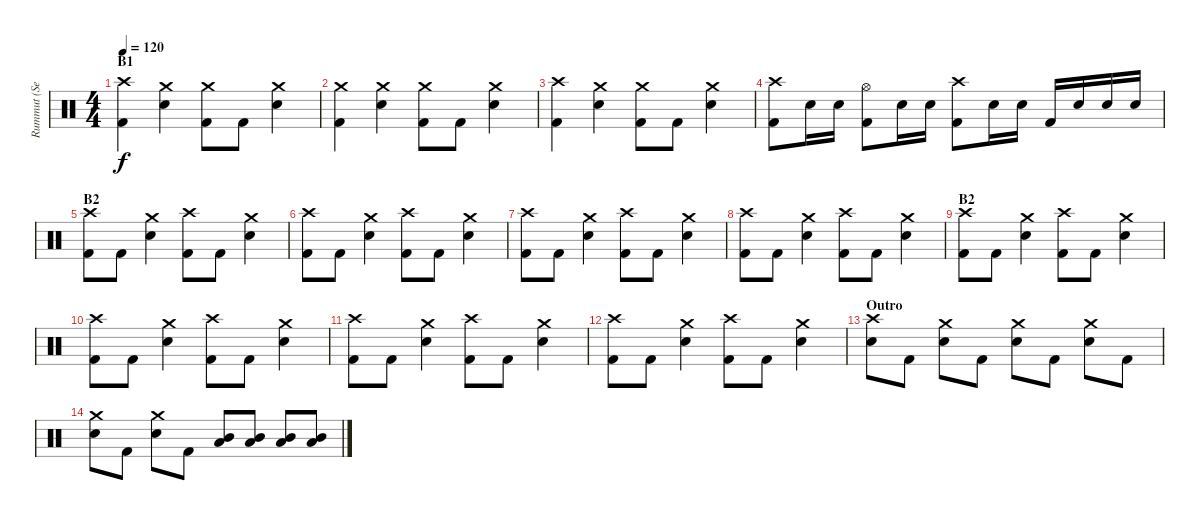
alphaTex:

\track ("Rummut (Seppo Pohjolainen)" "Rummut (Se") {instrument percussion}
\staff {score}
\articulation defaults
\ts (4 4)
\section ("" "B1")
\tempo 120
\clef neutral
\ks c
("Crash high (hit)" "Kick (hit) 2").4{dy f} ("Crash medium (hit)" "Electric Snare (hit)").4 ("Crash medium (hit)" "Kick (hit) 2").8 "Kick (hit) 2".8 ("Crash medium (hit)" "Electric Snare (hit)").4 |
("Crash medium (hit)" "Kick (hit) 2").4 ("Crash medium (hit)" "Electric Snare (hit)").4 ("Crash medium (hit)" "Kick (hit) 2").8 "Kick (hit) 2".8 ("Crash medium (hit)" "Electric Snare (hit)").4 |
("Crash high (hit)" "Kick (hit) 2").4 ("Crash medium (hit)" "Electric Snare (hit)").4 ("Crash medium (hit)" "Kick (hit) 2").8 "Kick (hit) 2".8 ("Crash medium (hit)" "Electric Snare (hit)").4 |
("Crash high (hit)" "Kick (hit) 2").8 "Electric Snare (hit)".16 "Electric Snare (hit)".16 ("Hi-Hat (open)" "Kick (hit) 2").8 "Electric Snare (hit)".16 "Electric Snare (hit)".16 ("Crash high (hit)" "Kick (hit) 2").8 "Electric Snare (hit)".16 "Electric Snare (hit)".16 "Kick (hit) 2".16 "Electric Snare (hit)".16 "Electric Snare (hit)".16 "Electric Snare (hit)".16 |
\section ("" "B2")
("Crash high (hit)" "Kick (hit) 2").8 "Kick (hit) 2".8 ("Crash medium (hit)" "Electric Snare (hit)").4 ("Crash high (hit)" "Kick (hit) 2").8 "Kick (hit) 2".8 ("Crash medium (hit)" "Electric Snare (hit)").4 |
("Crash high (hit)" "Kick (hit) 2").8 "Kick (hit) 2".8 ("Crash medium (hit)" "Electric Snare (hit)").4 ("Crash high (hit)" "Kick (hit) 2").8 "Kick (hit) 2".8 ("Crash medium (hit)" "Electric Snare (hit)").4 |
("Crash high (hit)" "Kick (hit) 2").8 "Kick (hit) 2".8 ("Crash medium (hit)" "Electric Snare (hit)").4 ("Crash high (hit)" "Kick (hit) 2").8 "Kick (hit) 2".8 ("Crash medium (hit)" "Electric Snare (hit)").4 |
("Crash high (hit)" "Kick (hit) 2").8 "Kick (hit) 2".8 ("Crash medium (hit)" "Electric Snare (hit)").4 ("Crash high (hit)" "Kick (hit) 2").8 "Kick (hit) 2".8 ("Crash medium (hit)" "Electric Snare (hit)").4 |
\section ("" "B2")
("Crash high (hit)" "Kick (hit) 2").8 "Kick (hit) 2".8 ("Crash medium (hit)" "Electric Snare (hit)").4 ("Crash high (hit)" "Kick (hit) 2").8 "Kick (hit) 2".8 ("Crash medium (hit)" "Electric Snare (hit)").4 |
("Crash high (hit)" "Kick (hit) 2").8 "Kick (hit) 2".8 ("Crash medium (hit)" "Electric Snare (hit)").4 ("Crash high (hit)" "Kick (hit) 2").8 "Kick (hit) 2".8 ("Crash medium (hit)" "Electric Snare (hit)").4 |
("Crash high (hit)" "Kick (hit) 2").8 "Kick (hit) 2".8 ("Crash medium (hit)" "Electric Snare (hit)").4 ("Crash high (hit)" "Kick (hit) 2").8 "Kick (hit) 2".8 ("Crash medium (hit)" "Electric Snare (hit)").4 |
("Crash high (hit)" "Kick (hit) 2").8 "Kick (hit) 2".8 ("Crash medium (hit)" "Electric Snare (hit)").4 ("Crash high (hit)" "Kick (hit) 2").8 "Kick (hit) 2".8 ("Crash medium (hit)" "Electric Snare (hit)").4 |
\section ("" "Outro")
("Crash high (hit)" "Electric Snare (hit)").8 "Kick (hit) 2".8 ("Crash medium (hit)" "Electric Snare (hit)").8 "Kick (hit) 2".8 ("Crash medium (hit)" "Electric Snare (hit)").8 "Kick (hit) 2".8 ("Crash medium (hit)" "Electric Snare (hit)").8 "Kick (hit) 2".8 |
("Crash medium (hit)" "Electric Snare (hit)").8 "Kick (hit) 2".8 ("Crash medium (hit)" "Electric Snare (hit)").8 "Kick (hit) 2".8 ("Low Floor Tom (hit)" "Mid Tom (hit)").8 ("Low Floor Tom (hit)" "Mid Tom (hit)").8 ("Low Floor Tom (hit)" "Mid Tom (hit)").8 ("Low Floor Tom (hit)" "Mid Tom (hit)").8
